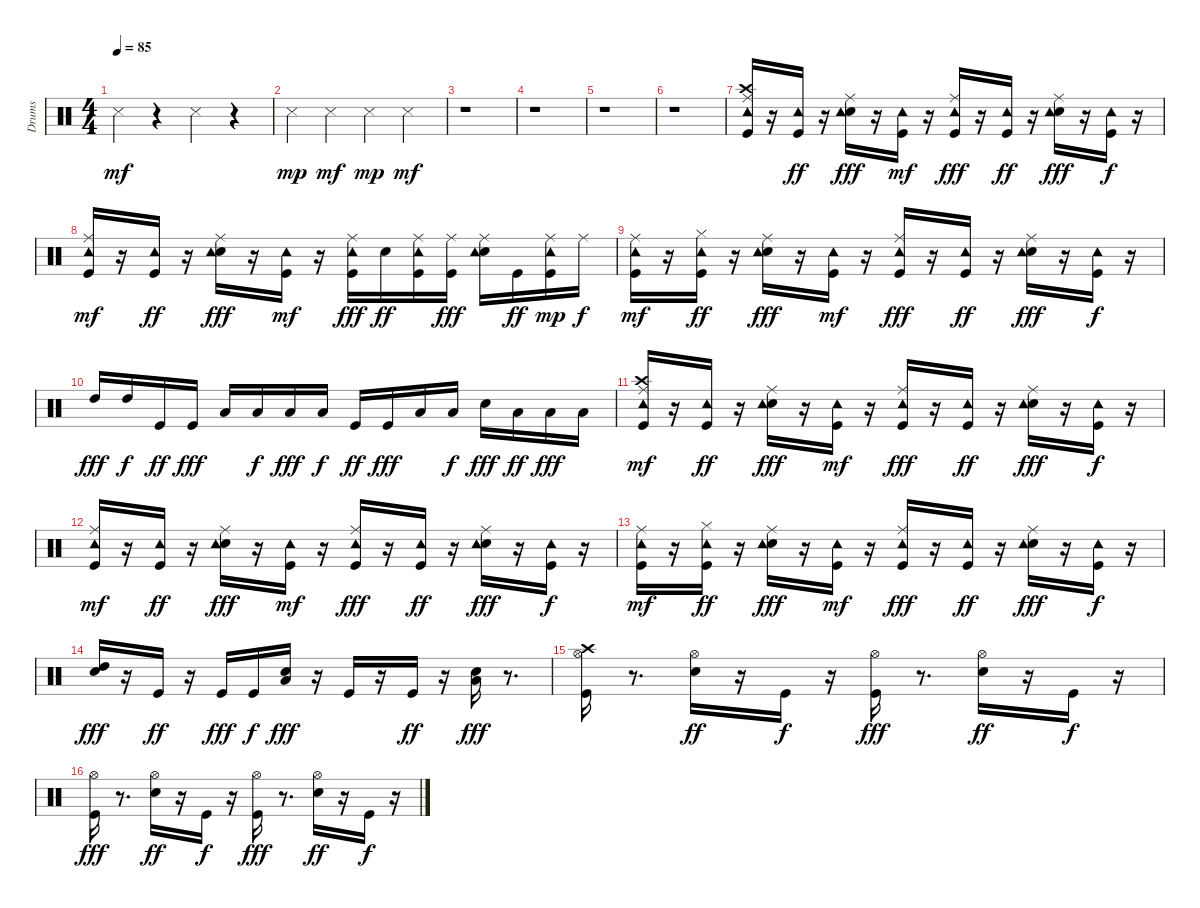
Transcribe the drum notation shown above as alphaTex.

\track ("Drums    " "Drums    ") {instrument percussion}
\staff {score}
\articulation defaults
\ts (4 4)
\tempo 85
\clef neutral
\ks c "Snare (side stick) 3".4{dy mf}
r.4 "Snare (side stick) 3".4 r.4 |
"Snare (side stick) 3".4{dy mp} "Snare (side stick) 3".4{dy mf} "Snare (side stick) 3".4{dy mp} "Snare (side stick) 3".4{dy mf} |
r.1 |
r.1 |
r.1 |
r.1 |
("Kick (hit)" "Ride (middle)" "Crash high (hit)" "Tambourine (hit)").16 r.16 ("Kick (hit)" "Tambourine (hit)").16{dy ff} r.16 ("Snare (hit) 2" "Ride (middle)" "Tambourine (hit)").16{dy fff} r.16 ("Kick (hit)" "Tambourine (hit)").16{dy mf} r.16 ("Kick (hit)" "Ride (middle)" "Tambourine (hit)").16{dy fff} r.16 ("Kick (hit)" "Tambourine (hit)").16{dy ff} r.16 ("Snare (hit) 2" "Ride (middle)" "Tambourine (hit)").16{dy fff} r.16 ("Kick (hit)" "Tambourine (hit)").16{dy f} r.16 |
("Kick (hit)" "Ride (middle)" "Tambourine (hit)").16{dy mf} r.16 ("Kick (hit)" "Tambourine (hit)").16{dy ff} r.16 ("Snare (hit) 2" "Ride (middle)" "Tambourine (hit)").16{dy fff} r.16 ("Kick (hit)" "Tambourine (hit)").16{dy mf} r.16 ("Kick (hit)" "Ride (middle)" "Tambourine (hit)").16{dy fff} "Snare (hit) 2".16{dy ff} ("Kick (hit)" "Ride (middle)" "Tambourine (hit)").16 ("Kick (hit)" "Ride (middle)").16{dy fff} ("Snare (hit) 2" "Ride (middle)" "Tambourine (hit)").16 "Kick (hit)".16{dy ff} ("Kick (hit)" "Ride (middle)" "Tambourine (hit)").16{dy mp} "Ride (middle)".16{dy f} |
("Kick (hit)" "Ride (middle)" "Tambourine (hit)").16{dy mf} r.16 ("Kick (hit)" "Hi-Hat (closed)" "Tambourine (hit)").16{dy ff} r.16 ("Snare (hit) 2" "Ride (middle)" "Tambourine (hit)").16{dy fff} r.16 ("Kick (hit)" "Tambourine (hit)").16{dy mf} r.16 ("Kick (hit)" "Ride (middle)" "Tambourine (hit)").16{dy fff} r.16 ("Kick (hit)" "Tambourine (hit)").16{dy ff} r.16 ("Snare (hit) 2" "Ride (middle)" "Tambourine (hit)").16{dy fff} r.16 ("Kick (hit)" "Tambourine (hit)").16{dy f} r.16 |
"High Tom (hit)".16{dy fff} "High Tom (hit)".16{dy f} "Kick (hit)".16{dy ff} "Kick (hit)".16{dy fff} "Low Tom (hit)".16 "Low Tom (hit)".16{dy f} "Low Tom (hit)".16{dy fff} "Low Tom (hit)".16{dy f} "Kick (hit)".16{dy ff} "Kick (hit)".16{dy fff} "Low Floor Tom (hit)".16 "Low Floor Tom (hit)".16{dy f} "Snare (hit) 2".16{dy fff} "Low Floor Tom (hit)".16{dy ff} "Low Floor Tom (hit)".16{dy fff} "Low Floor Tom (hit)".16 |
("Kick (hit)" "Ride (middle)" "Crash high (hit)" "Tambourine (hit)").16{dy mf} r.16 ("Kick (hit)" "Tambourine (hit)").16{dy ff} r.16 ("Snare (hit) 2" "Ride (middle)" "Tambourine (hit)").16{dy fff} r.16 ("Kick (hit)" "Tambourine (hit)").16{dy mf} r.16 ("Kick (hit)" "Ride (middle)" "Tambourine (hit)").16{dy fff} r.16 ("Kick (hit)" "Tambourine (hit)").16{dy ff} r.16 ("Snare (hit) 2" "Ride (middle)" "Tambourine (hit)").16{dy fff} r.16 ("Kick (hit)" "Tambourine (hit)").16{dy f} r.16 |
("Kick (hit)" "Ride (middle)" "Tambourine (hit)").16{dy mf} r.16 ("Kick (hit)" "Tambourine (hit)").16{dy ff} r.16 ("Snare (hit) 2" "Ride (middle)" "Tambourine (hit)").16{dy fff} r.16 ("Kick (hit)" "Tambourine (hit)").16{dy mf} r.16 ("Kick (hit)" "Ride (middle)" "Tambourine (hit)").16{dy fff} r.16 ("Kick (hit)" "Tambourine (hit)").16{dy ff} r.16 ("Snare (hit) 2" "Ride (middle)" "Tambourine (hit)").16{dy fff} r.16 ("Kick (hit)" "Tambourine (hit)").16{dy f} r.16 |
("Kick (hit)" "Ride (middle)" "Tambourine (hit)").16{dy mf} r.16 ("Kick (hit)" "Hi-Hat (closed)" "Tambourine (hit)").16{dy ff} r.16 ("Snare (hit) 2" "Ride (middle)" "Tambourine (hit)").16{dy fff} r.16 ("Kick (hit)" "Tambourine (hit)").16{dy mf} r.16 ("Kick (hit)" "Ride (middle)" "Tambourine (hit)").16{dy fff} r.16 ("Kick (hit)" "Tambourine (hit)").16{dy ff} r.16 ("Snare (hit) 2" "Ride (middle)" "Tambourine (hit)").16{dy fff} r.16 ("Kick (hit)" "Tambourine (hit)").16{dy f} r.16 |
("Snare (hit) 2" "High Tom (hit)").16{dy fff} r.16 "Kick (hit)".16{dy ff} r.16 "Kick (hit)".16{dy fff} "Kick (hit)".16{dy f} ("Snare (hit) 2" "Low Tom (hit)").16{dy fff} r.16 "Kick (hit)".16 r.16 "Kick (hit)".16{dy ff} r.16 ("Snare (hit) 2" "Low Floor Tom (hit)").16{dy fff} r.8{d} |
("Kick (hit)" "Hi-Hat (open)" "Crash high (hit)").16 r.8{d} ("Snare (hit) 2" "Hi-Hat (open)").16{dy ff} r.16 "Kick (hit)".16{dy f} r.16 ("Kick (hit)" "Hi-Hat (open)").16{dy fff} r.8{d} ("Snare (hit) 2" "Hi-Hat (open)").16{dy ff} r.16 "Kick (hit)".16{dy f} r.16 |
("Kick (hit)" "Hi-Hat (open)").16{dy fff} r.8{d} ("Snare (hit) 2" "Hi-Hat (open)").16{dy ff} r.16 "Kick (hit)".16{dy f} r.16 ("Kick (hit)" "Hi-Hat (open)").16{dy fff} r.8{d} ("Snare (hit) 2" "Hi-Hat (open)").16{dy ff} r.16 "Kick (hit)".16{dy f} r.16
